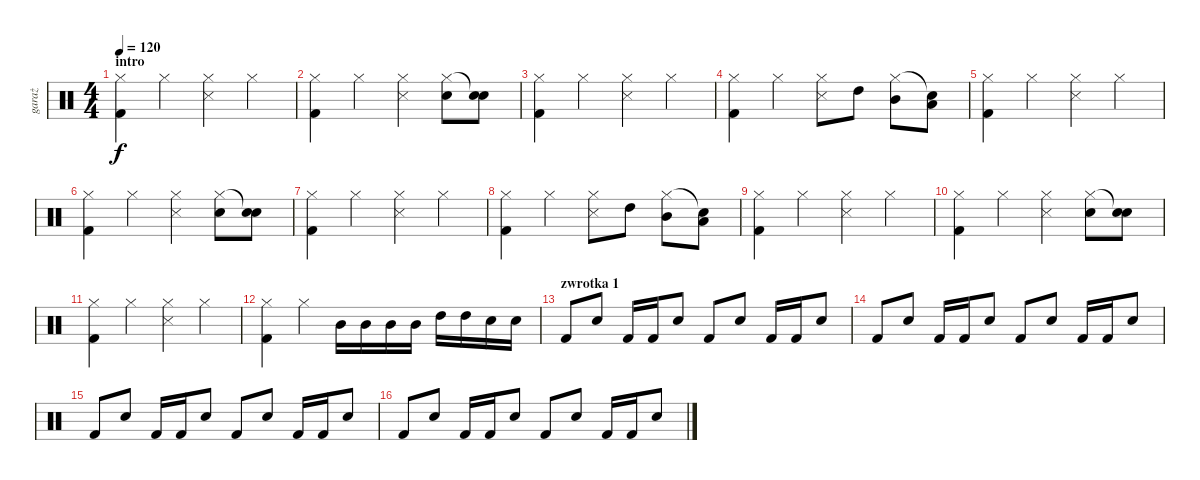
\track ("garaż" "garaż") {instrument percussion}
\staff {score}
\articulation defaults
\ts (4 4)
\section ("" "intro")
\tempo 120
\clef neutral
\ks c
("Hi-Hat (closed)" "Kick (hit) 2").4{dy f} "Hi-Hat (closed)".4 ("Hi-Hat (closed)" "Snare (side stick) 3").4 "Hi-Hat (closed)".4 |
("Hi-Hat (closed)" "Kick (hit) 2").4 "Hi-Hat (closed)".4 ("Hi-Hat (closed)" "Snare (side stick) 3").4 ("Hi-Hat (closed)" "Snare (hit) 2").8 ("Snare (hit)"{t} "Snare (hit) 2").8 |
("Hi-Hat (closed)" "Kick (hit) 2").4 "Hi-Hat (closed)".4 ("Hi-Hat (closed)" "Snare (side stick) 3").4 "Hi-Hat (closed)".4 |
("Hi-Hat (closed)" "Kick (hit) 2").4 "Hi-Hat (closed)".4 ("Hi-Hat (closed)" "Snare (side stick) 3").8 "High Tom (hit)".8 ("Hi-Hat (closed)" "Mid Tom (hit)").8 ("Snare (hit)"{t} "Low Tom (hit)").8 |
("Hi-Hat (closed)" "Kick (hit) 2").4 "Hi-Hat (closed)".4 ("Hi-Hat (closed)" "Snare (side stick) 3").4 "Hi-Hat (closed)".4 |
("Hi-Hat (closed)" "Kick (hit) 2").4 "Hi-Hat (closed)".4 ("Hi-Hat (closed)" "Snare (side stick) 3").4 ("Hi-Hat (closed)" "Snare (hit) 2").8 ("Snare (hit)"{t} "Snare (hit) 2").8 |
("Hi-Hat (closed)" "Kick (hit) 2").4 "Hi-Hat (closed)".4 ("Hi-Hat (closed)" "Snare (side stick) 3").4 "Hi-Hat (closed)".4 |
("Hi-Hat (closed)" "Kick (hit) 2").4 "Hi-Hat (closed)".4 ("Hi-Hat (closed)" "Snare (side stick) 3").8 "High Tom (hit)".8 ("Hi-Hat (closed)" "Mid Tom (hit)").8 ("Snare (hit)"{t} "Low Tom (hit)").8 |
("Hi-Hat (closed)" "Kick (hit) 2").4 "Hi-Hat (closed)".4 ("Hi-Hat (closed)" "Snare (side stick) 3").4 "Hi-Hat (closed)".4 |
("Hi-Hat (closed)" "Kick (hit) 2").4 "Hi-Hat (closed)".4 ("Hi-Hat (closed)" "Snare (side stick) 3").4 ("Hi-Hat (closed)" "Snare (hit) 2").8 ("Snare (hit)"{t} "Snare (hit) 2").8 |
("Hi-Hat (closed)" "Kick (hit) 2").4 "Hi-Hat (closed)".4 ("Hi-Hat (closed)" "Snare (side stick) 3").4 "Hi-Hat (closed)".4 |
("Hi-Hat (closed)" "Kick (hit) 2").4 "Hi-Hat (closed)".4 "Mid Tom (hit)".16 "Mid Tom (hit)".16 "Mid Tom (hit)".16 "Mid Tom (hit)".16 "High Tom (hit)".16 "High Tom (hit)".16 "Snare (hit) 2".16 "Snare (hit) 2".16 |
\section ("" "zwrotka 1")
"Kick (hit) 2".8 "Snare (hit) 2".8 "Kick (hit) 2".16 "Kick (hit) 2".16 "Snare (hit) 2".8 "Kick (hit) 2".8 "Snare (hit) 2".8 "Kick (hit) 2".16 "Kick (hit) 2".16 "Snare (hit) 2".8 |
"Kick (hit) 2".8 "Snare (hit) 2".8 "Kick (hit) 2".16 "Kick (hit) 2".16 "Snare (hit) 2".8 "Kick (hit) 2".8 "Snare (hit) 2".8 "Kick (hit) 2".16 "Kick (hit) 2".16 "Snare (hit) 2".8 |
"Kick (hit) 2".8 "Snare (hit) 2".8 "Kick (hit) 2".16 "Kick (hit) 2".16 "Snare (hit) 2".8 "Kick (hit) 2".8 "Snare (hit) 2".8 "Kick (hit) 2".16 "Kick (hit) 2".16 "Snare (hit) 2".8 |
"Kick (hit) 2".8 "Snare (hit) 2".8 "Kick (hit) 2".16 "Kick (hit) 2".16 "Snare (hit) 2".8 "Kick (hit) 2".8 "Snare (hit) 2".8 "Kick (hit) 2".16 "Kick (hit) 2".16 "Snare (hit) 2".8
